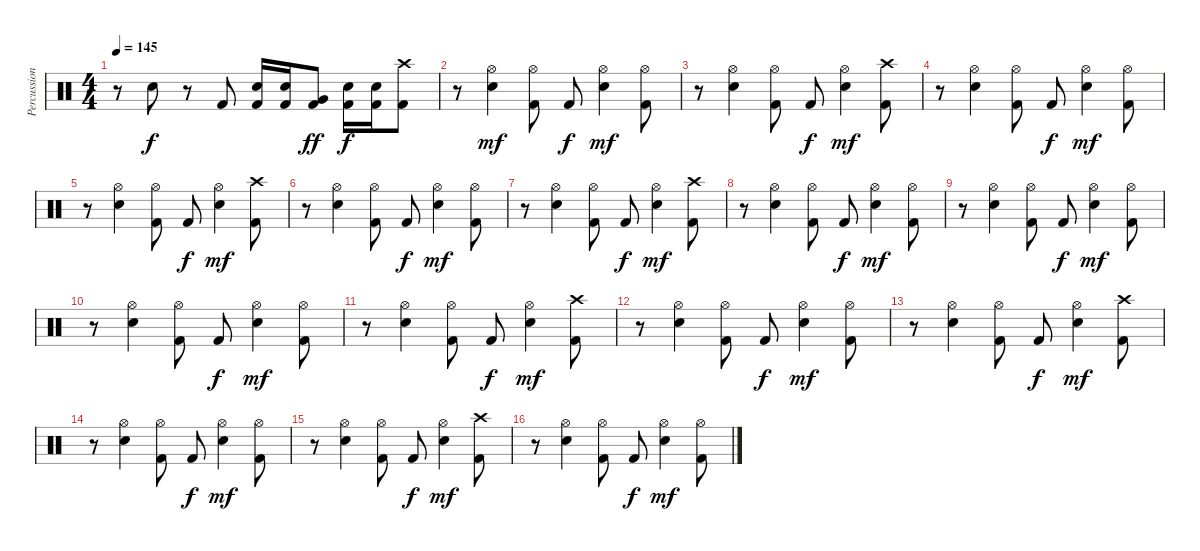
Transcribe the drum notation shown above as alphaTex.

\track ("Percussioni" "Percussion") {instrument percussion}
\staff {score}
\articulation defaults
\ts (4 4)
\tempo 145
\clef neutral
\ks c
r.8{dy mf} "Snare (hit) 2".8{dy f} r.8 "Kick (hit) 2".8 ("Kick (hit) 2" "Snare (hit) 2").16 ("Kick (hit) 2" "Snare (hit) 2").16 ("Kick (hit) 2" "Very Low Tom (hit)").8{dy ff} ("Kick (hit) 2" "Snare (hit) 2").16{dy f} ("Kick (hit) 2" "Snare (hit) 2").16 ("Kick (hit) 2" "Crash high (hit)").8 |
r.8 ("Snare (hit) 2" "Hi-Hat (open)").4{dy mf} ("Kick (hit) 2" "Hi-Hat (open)").8 "Kick (hit) 2".8{dy f} ("Snare (hit) 2" "Hi-Hat (open)").4{dy mf} ("Kick (hit) 2" "Hi-Hat (open)").8 |
r.8 ("Snare (hit) 2" "Hi-Hat (open)").4 ("Kick (hit) 2" "Hi-Hat (open)").8 "Kick (hit) 2".8{dy f} ("Snare (hit) 2" "Hi-Hat (open)").4{dy mf} ("Kick (hit) 2" "Crash high (hit)").8 |
r.8 ("Snare (hit) 2" "Hi-Hat (open)").4 ("Kick (hit) 2" "Hi-Hat (open)").8 "Kick (hit) 2".8{dy f} ("Snare (hit) 2" "Hi-Hat (open)").4{dy mf} ("Kick (hit) 2" "Hi-Hat (open)").8 |
r.8 ("Snare (hit) 2" "Hi-Hat (open)").4 ("Kick (hit) 2" "Hi-Hat (open)").8 "Kick (hit) 2".8{dy f} ("Snare (hit) 2" "Hi-Hat (open)").4{dy mf} ("Kick (hit) 2" "Crash high (hit)").8 |
r.8 ("Snare (hit) 2" "Hi-Hat (open)").4 ("Kick (hit) 2" "Hi-Hat (open)").8 "Kick (hit) 2".8{dy f} ("Snare (hit) 2" "Hi-Hat (open)").4{dy mf} ("Kick (hit) 2" "Hi-Hat (open)").8 |
r.8 ("Snare (hit) 2" "Hi-Hat (open)").4 ("Kick (hit) 2" "Hi-Hat (open)").8 "Kick (hit) 2".8{dy f} ("Snare (hit) 2" "Hi-Hat (open)").4{dy mf} ("Kick (hit) 2" "Crash high (hit)").8 |
r.8 ("Snare (hit) 2" "Hi-Hat (open)").4 ("Kick (hit) 2" "Hi-Hat (open)").8 "Kick (hit) 2".8{dy f} ("Snare (hit) 2" "Hi-Hat (open)").4{dy mf} ("Kick (hit) 2" "Hi-Hat (open)").8 |
r.8 ("Snare (hit) 2" "Hi-Hat (open)").4 ("Kick (hit) 2" "Hi-Hat (open)").8 "Kick (hit) 2".8{dy f} ("Snare (hit) 2" "Hi-Hat (open)").4{dy mf} ("Kick (hit) 2" "Hi-Hat (open)").8 |
r.8 ("Snare (hit) 2" "Hi-Hat (open)").4 ("Kick (hit) 2" "Hi-Hat (open)").8 "Kick (hit) 2".8{dy f} ("Snare (hit) 2" "Hi-Hat (open)").4{dy mf} ("Kick (hit) 2" "Hi-Hat (open)").8 |
r.8 ("Snare (hit) 2" "Hi-Hat (open)").4 ("Kick (hit) 2" "Hi-Hat (open)").8 "Kick (hit) 2".8{dy f} ("Snare (hit) 2" "Hi-Hat (open)").4{dy mf} ("Kick (hit) 2" "Crash high (hit)").8 |
r.8 ("Snare (hit) 2" "Hi-Hat (open)").4 ("Kick (hit) 2" "Hi-Hat (open)").8 "Kick (hit) 2".8{dy f} ("Snare (hit) 2" "Hi-Hat (open)").4{dy mf} ("Kick (hit) 2" "Hi-Hat (open)").8 |
r.8 ("Snare (hit) 2" "Hi-Hat (open)").4 ("Kick (hit) 2" "Hi-Hat (open)").8 "Kick (hit) 2".8{dy f} ("Snare (hit) 2" "Hi-Hat (open)").4{dy mf} ("Kick (hit) 2" "Crash high (hit)").8 |
r.8 ("Snare (hit) 2" "Hi-Hat (open)").4 ("Kick (hit) 2" "Hi-Hat (open)").8 "Kick (hit) 2".8{dy f} ("Snare (hit) 2" "Hi-Hat (open)").4{dy mf} ("Kick (hit) 2" "Hi-Hat (open)").8 |
r.8 ("Snare (hit) 2" "Hi-Hat (open)").4 ("Kick (hit) 2" "Hi-Hat (open)").8 "Kick (hit) 2".8{dy f} ("Snare (hit) 2" "Hi-Hat (open)").4{dy mf} ("Kick (hit) 2" "Crash high (hit)").8 |
r.8 ("Snare (hit) 2" "Hi-Hat (open)").4 ("Kick (hit) 2" "Hi-Hat (open)").8 "Kick (hit) 2".8{dy f} ("Snare (hit) 2" "Hi-Hat (open)").4{dy mf} ("Kick (hit) 2" "Hi-Hat (open)").8
